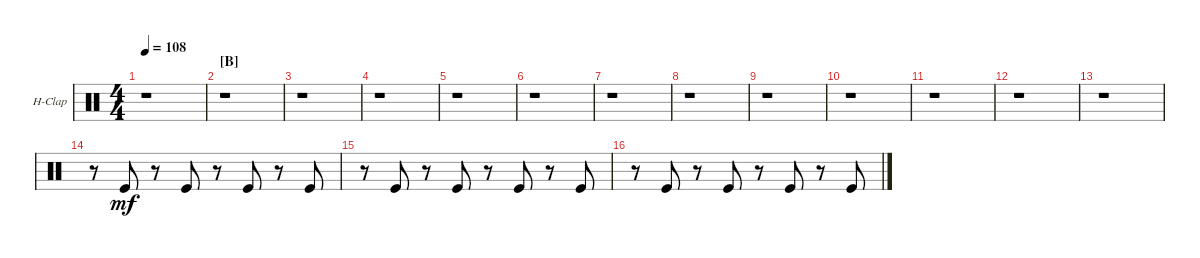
\defaultSystemsLayout 4
\bracketExtendMode groupsimilarinstruments
\firstSystemTrackNameOrientation horizontal
\otherSystemsTrackNameOrientation horizontal
\track ("Hand Clap" "H-Clap") {instrument percussion}
\staff {score}
\articulation defaults
\ts (4 4)
\tempo 108
\clef neutral
\scale
0.333333
\ks c
r.1{dy mf} |
\section ("B" "")
\scale
0.333333 r.1 |
\scale
0.333333 r.1 |
\scale
0.333333 r.1 |
\scale
0.333333 r.1 |
\scale
0.333333 r.1 |
\scale
0.333333 r.1 |
\scale
0.333333 r.1 |
\scale
0.333333 r.1 |
\scale
0.333333 r.1 |
\scale
0.333333 r.1 |
\scale
0.333333 r.1 |
\scale
0.333333 r.1 |
\scale
0.333333 r.8 "Kick (hit)".8 r.8 "Kick (hit)".8 r.8 "Kick (hit)".8 r.8 "Kick (hit)".8 |
\scale
0.333333 r.8 "Kick (hit)".8 r.8 "Kick (hit)".8 r.8 "Kick (hit)".8 r.8 "Kick (hit)".8 |
\scale
0.333333 r.8 "Kick (hit)".8 r.8 "Kick (hit)".8 r.8 "Kick (hit)".8 r.8 "Kick (hit)".8
